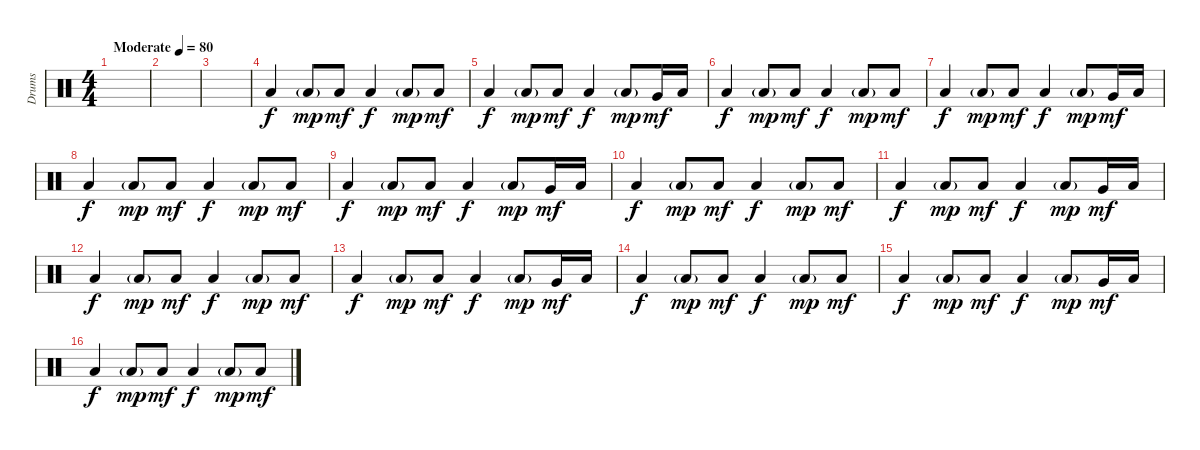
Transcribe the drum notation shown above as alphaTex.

\track ("Drums" "Drums") {instrument percussion}
\staff {score}
\articulation defaults
\ts (4 4)
\tempo (80 "Moderate")
\clef neutral
\ks c
|
|
|
"Low Floor Tom (hit)".4 "Low Floor Tom (hit)"{g}.8{dy mp} "Low Floor Tom (hit)".8{dy mf} "Low Floor Tom (hit)".4{dy f} "Low Floor Tom (hit)"{g}.8{dy mp} "Low Floor Tom (hit)".8{dy mf} |
"Low Floor Tom (hit)".4{dy f} "Low Floor Tom (hit)"{g}.8{dy mp} "Low Floor Tom (hit)".8{dy mf} "Low Floor Tom (hit)".4{dy f} "Low Floor Tom (hit)"{g}.8{dy mp} "Very Low Tom (hit)".16{dy mf} "Low Floor Tom (hit)".16 |
"Low Floor Tom (hit)".4{dy f} "Low Floor Tom (hit)"{g}.8{dy mp} "Low Floor Tom (hit)".8{dy mf} "Low Floor Tom (hit)".4{dy f} "Low Floor Tom (hit)"{g}.8{dy mp} "Low Floor Tom (hit)".8{dy mf} |
"Low Floor Tom (hit)".4{dy f} "Low Floor Tom (hit)"{g}.8{dy mp} "Low Floor Tom (hit)".8{dy mf} "Low Floor Tom (hit)".4{dy f} "Low Floor Tom (hit)"{g}.8{dy mp} "Very Low Tom (hit)".16{dy mf} "Low Floor Tom (hit)".16 |
"Low Floor Tom (hit)".4{dy f} "Low Floor Tom (hit)"{g}.8{dy mp} "Low Floor Tom (hit)".8{dy mf} "Low Floor Tom (hit)".4{dy f} "Low Floor Tom (hit)"{g}.8{dy mp} "Low Floor Tom (hit)".8{dy mf} |
"Low Floor Tom (hit)".4{dy f} "Low Floor Tom (hit)"{g}.8{dy mp} "Low Floor Tom (hit)".8{dy mf} "Low Floor Tom (hit)".4{dy f} "Low Floor Tom (hit)"{g}.8{dy mp} "Very Low Tom (hit)".16{dy mf} "Low Floor Tom (hit)".16 |
"Low Floor Tom (hit)".4{dy f} "Low Floor Tom (hit)"{g}.8{dy mp} "Low Floor Tom (hit)".8{dy mf} "Low Floor Tom (hit)".4{dy f} "Low Floor Tom (hit)"{g}.8{dy mp} "Low Floor Tom (hit)".8{dy mf} |
"Low Floor Tom (hit)".4{dy f} "Low Floor Tom (hit)"{g}.8{dy mp} "Low Floor Tom (hit)".8{dy mf} "Low Floor Tom (hit)".4{dy f} "Low Floor Tom (hit)"{g}.8{dy mp} "Very Low Tom (hit)".16{dy mf} "Low Floor Tom (hit)".16 |
"Low Floor Tom (hit)".4{dy f} "Low Floor Tom (hit)"{g}.8{dy mp} "Low Floor Tom (hit)".8{dy mf} "Low Floor Tom (hit)".4{dy f} "Low Floor Tom (hit)"{g}.8{dy mp} "Low Floor Tom (hit)".8{dy mf} |
"Low Floor Tom (hit)".4{dy f} "Low Floor Tom (hit)"{g}.8{dy mp} "Low Floor Tom (hit)".8{dy mf} "Low Floor Tom (hit)".4{dy f} "Low Floor Tom (hit)"{g}.8{dy mp} "Very Low Tom (hit)".16{dy mf} "Low Floor Tom (hit)".16 |
"Low Floor Tom (hit)".4{dy f} "Low Floor Tom (hit)"{g}.8{dy mp} "Low Floor Tom (hit)".8{dy mf} "Low Floor Tom (hit)".4{dy f} "Low Floor Tom (hit)"{g}.8{dy mp} "Low Floor Tom (hit)".8{dy mf} |
"Low Floor Tom (hit)".4{dy f} "Low Floor Tom (hit)"{g}.8{dy mp} "Low Floor Tom (hit)".8{dy mf} "Low Floor Tom (hit)".4{dy f} "Low Floor Tom (hit)"{g}.8{dy mp} "Very Low Tom (hit)".16{dy mf} "Low Floor Tom (hit)".16 |
"Low Floor Tom (hit)".4{dy f} "Low Floor Tom (hit)"{g}.8{dy mp} "Low Floor Tom (hit)".8{dy mf} "Low Floor Tom (hit)".4{dy f} "Low Floor Tom (hit)"{g}.8{dy mp} "Low Floor Tom (hit)".8{dy mf}
